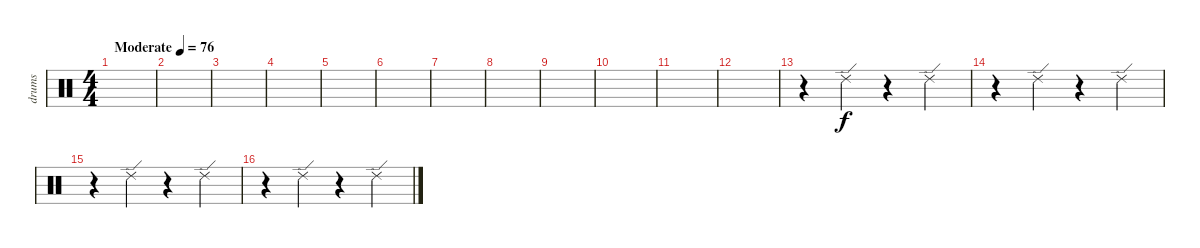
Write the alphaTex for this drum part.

\track ("drums" "drums") {instrument percussion}
\staff {score}
\articulation defaults
\ts (4 4)
\tempo (76 "Moderate")
\clef neutral
\ks c
|
|
|
|
|
|
|
|
|
|
|
|
r.4 "Ride (edge) 2".4 r.4 "Ride (edge) 2".4 |
r.4 "Ride (edge) 2".4 r.4 "Ride (edge) 2".4 |
r.4 "Ride (edge) 2".4 r.4 "Ride (edge) 2".4 |
r.4 "Ride (edge) 2".4 r.4 "Ride (edge) 2".4
